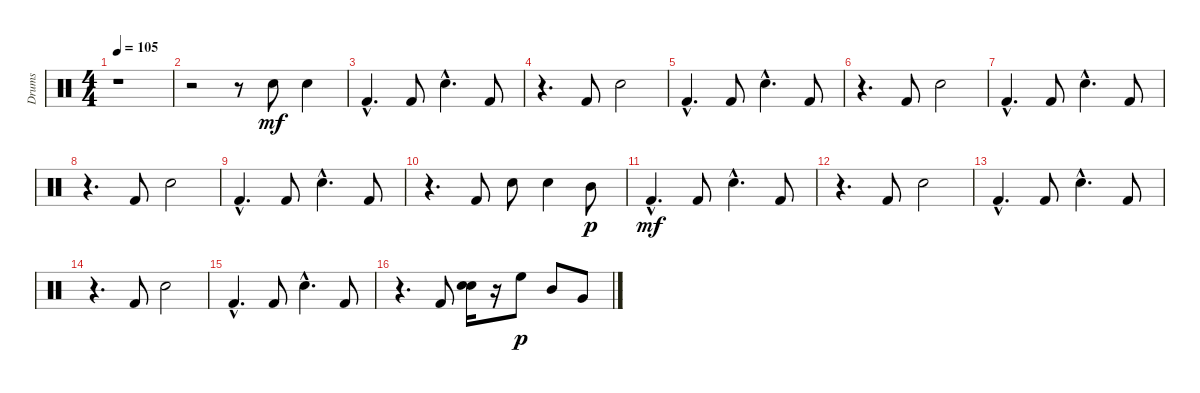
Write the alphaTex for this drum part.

\track ("Drums" "Drums") {instrument percussion}
\staff {score}
\articulation defaults
\ts (4 4)
\tempo 105
\clef neutral
\ks c
r.1{dy mf} |
r.2 r.8 "Snare (hit) 2".8 "Snare (hit) 2".4 |
"Kick (hit) 2"{hac}.4{d} "Kick (hit) 2".8 "Snare (hit) 2"{hac}.4{d} "Kick (hit) 2".8 |
r.4{d} "Kick (hit) 2".8 "Snare (hit) 2".2 |
"Kick (hit) 2"{hac}.4{d} "Kick (hit) 2".8 "Snare (hit) 2"{hac}.4{d} "Kick (hit) 2".8 |
r.4{d} "Kick (hit) 2".8 "Snare (hit) 2".2 |
"Kick (hit) 2"{hac}.4{d} "Kick (hit) 2".8 "Snare (hit) 2"{hac}.4{d} "Kick (hit) 2".8 |
r.4{d} "Kick (hit) 2".8 "Snare (hit) 2".2 |
"Kick (hit) 2"{hac}.4{d} "Kick (hit) 2".8 "Snare (hit) 2"{hac}.4{d} "Kick (hit) 2".8 |
r.4{d} "Kick (hit) 2".8 "Snare (hit) 2".8 "Snare (hit) 2".4 "Mid Tom (hit)".8{dy p} |
"Kick (hit) 2"{hac}.4{d dy mf} "Kick (hit) 2".8 "Snare (hit) 2"{hac}.4{d} "Kick (hit) 2".8 |
r.4{d} "Kick (hit) 2".8 "Snare (hit) 2".2 |
"Kick (hit) 2"{hac}.4{d} "Kick (hit) 2".8 "Snare (hit) 2"{hac}.4{d} "Kick (hit) 2".8 |
r.4{d} "Kick (hit) 2".8 "Snare (hit) 2".2 |
"Kick (hit) 2"{hac}.4{d} "Kick (hit) 2".8 "Snare (hit) 2"{hac}.4{d} "Kick (hit) 2".8 |
r.4{d} "Kick (hit) 2".8 ("Snare (hit) 2" "Snare (hit) 2").16 r.16 "High Floor Tom (hit)".8{dy p} "Mid Tom (hit)".8 "Very Low Tom (hit)".8
